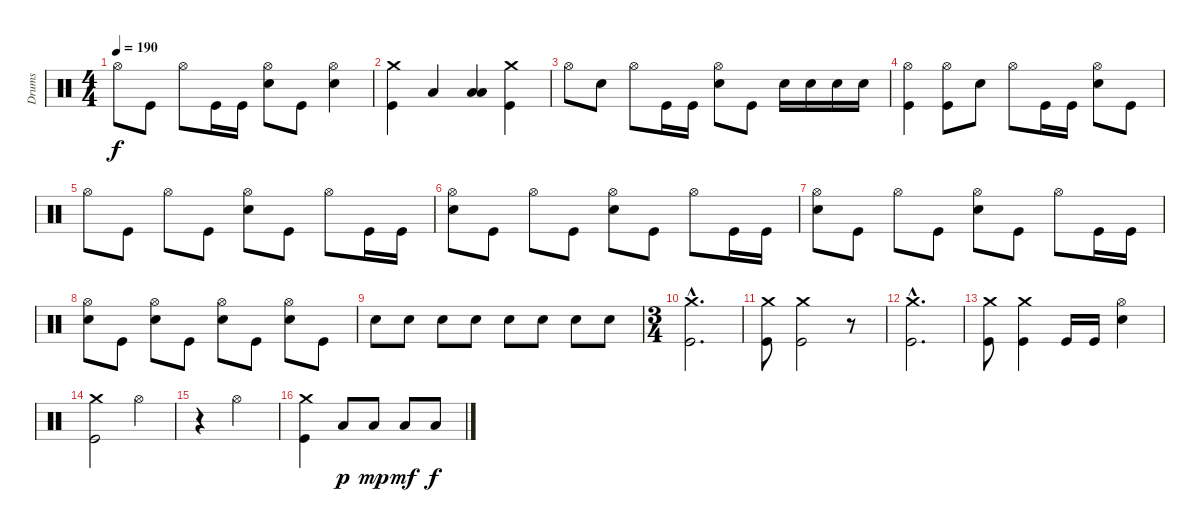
\track ("Drums" "Drums") {instrument percussion}
\staff {score}
\articulation defaults
\ts (4 4)
\tempo 190
\clef neutral
\ks c "Hi-Hat (open)".8{dy f} "Kick (hit)".8 "Hi-Hat (open)".8 "Kick (hit)".16 "Kick (hit)".16
("Hi-Hat (open)" "Electric Snare (hit)").8 "Kick (hit)".8 ("Hi-Hat (open)" "Electric Snare (hit)").4 |
("Crash medium (hit)" "Kick (hit)").4 "Low Floor Tom (hit)".4 ("Low Floor Tom (hit)" "Low Floor Tom (hit)").4{bd 480} ("Crash medium (hit)" "Kick (hit)").4 |
"Hi-Hat (open)".8 "Electric Snare (hit)".8 "Hi-Hat (open)".8 "Kick (hit)".16 "Kick (hit)".16 ("Hi-Hat (open)" "Electric Snare (hit)").8 "Kick (hit)".8 "Electric Snare (hit)".16 "Electric Snare (hit)".16 "Electric Snare (hit)".16 "Electric Snare (hit)".16 |
("Hi-Hat (open)" "Kick (hit)").4 ("Hi-Hat (open)" "Kick (hit)").8 "Electric Snare (hit)".8 "Hi-Hat (open)".8 "Kick (hit)".16 "Kick (hit)".16 ("Hi-Hat (open)" "Electric Snare (hit)").8 "Kick (hit)".8 |
"Hi-Hat (open)".8 "Kick (hit)".8 "Hi-Hat (open)".8 "Kick (hit)".8 ("Hi-Hat (open)" "Electric Snare (hit)").8 "Kick (hit)".8 "Hi-Hat (open)".8 "Kick (hit)".16 "Kick (hit)".16 |
("Hi-Hat (open)" "Electric Snare (hit)").8 "Kick (hit)".8 "Hi-Hat (open)".8 "Kick (hit)".8 ("Hi-Hat (open)" "Electric Snare (hit)").8 "Kick (hit)".8 "Hi-Hat (open)".8 "Kick (hit)".16 "Kick (hit)".16 |
("Hi-Hat (open)" "Electric Snare (hit)").8 "Kick (hit)".8 "Hi-Hat (open)".8 "Kick (hit)".8 ("Hi-Hat (open)" "Electric Snare (hit)").8 "Kick (hit)".8 "Hi-Hat (open)".8 "Kick (hit)".16 "Kick (hit)".16 |
("Hi-Hat (open)" "Electric Snare (hit)").8 "Kick (hit)".8 ("Hi-Hat (open)" "Electric Snare (hit)").8 "Kick (hit)".8 ("Hi-Hat (open)" "Electric Snare (hit)").8 "Kick (hit)".8 ("Hi-Hat (open)" "Electric Snare (hit)").8 "Kick (hit)".8 |
"Electric Snare (hit)".8 "Electric Snare (hit)".8 "Electric Snare (hit)".8 "Electric Snare (hit)".8 "Electric Snare (hit)".8 "Electric Snare (hit)".8 "Electric Snare (hit)".8 "Electric Snare (hit)".8 |
\ts (3 4)
("Crash medium (hit)"{hac} "Kick (hit)"{hac}).2{d} |
("Crash medium (hit)" "Kick (hit)").8 ("Crash medium (hit)" "Kick (hit)").2 r.8 |
("Crash medium (hit)"{hac} "Kick (hit)"{hac}).2{d} |
("Crash medium (hit)" "Kick (hit)").8 ("Crash medium (hit)" "Kick (hit)").4 "Kick (hit)".16 "Kick (hit)".16 ("Hi-Hat (open)" "Electric Snare (hit)").4 |
("Crash medium (hit)" "Kick (hit)").2 "Hi-Hat (open)".4 |
r.4 "Hi-Hat (open)".2 |
("Crash medium (hit)" "Kick (hit)").4 "Low Tom (hit)".8{dy p} "Low Tom (hit)".8{dy mp} "Low Tom (hit)".8{dy mf} "Low Tom (hit)".8{dy f}
